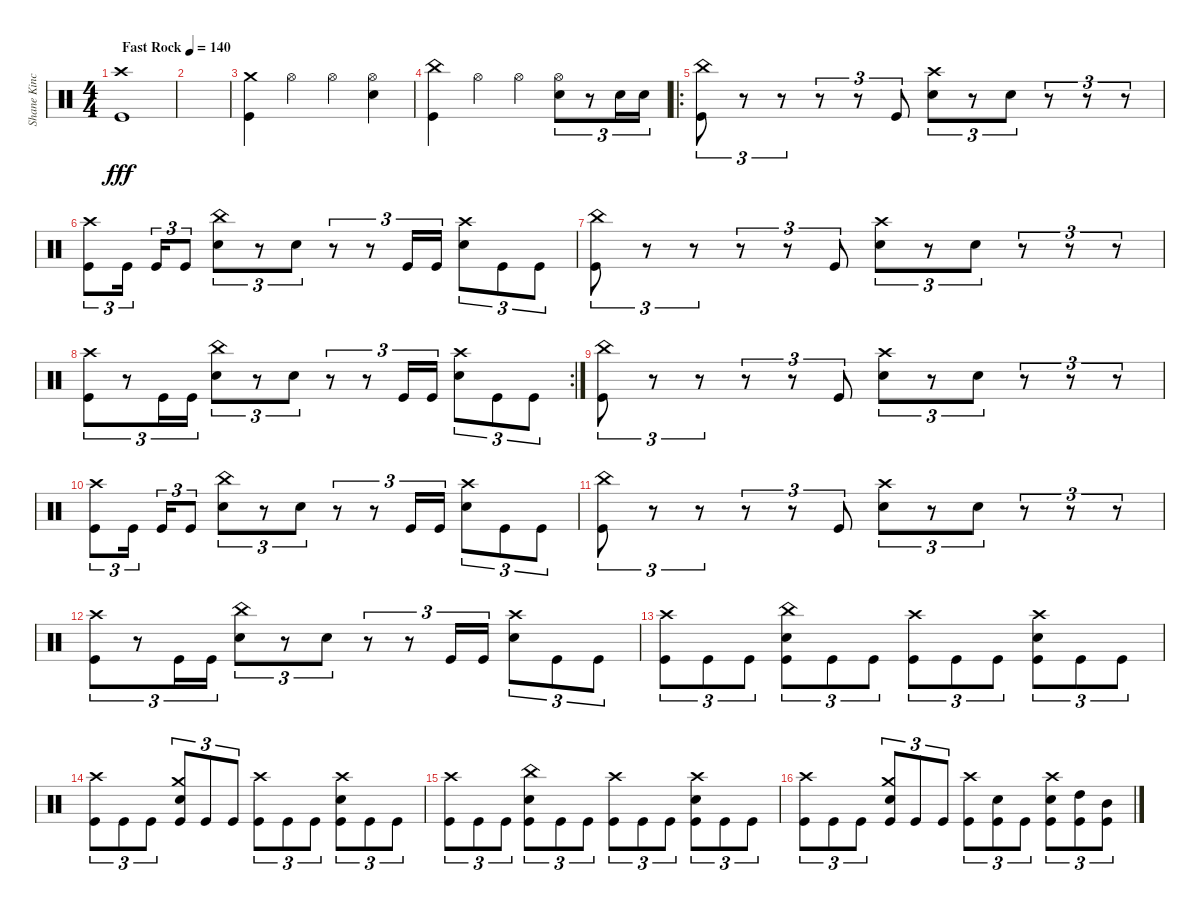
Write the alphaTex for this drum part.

\track ("Shane Kincaid" "Shane Kinc") {instrument percussion}
\staff {score}
\articulation defaults
\ts (4 4)
\tempo (140 "Fast Rock")
\clef neutral
\ks c
("Crash high (hit)" "Kick (hit)").1{dy fff} |
|
("Crash medium (hit)" "Kick (hit)").4 "Hi-Hat (open)".4 "Hi-Hat (open)".4 ("Hi-Hat (open)" "Electric Snare (hit)").4 |
("China (hit)" "Kick (hit)").4 "Hi-Hat (open)".4 "Hi-Hat (open)".4 ("Hi-Hat (open)" "Electric Snare (hit)").8{tu (3 2)} r.8{tu (3 2)} "Electric Snare (hit)".16{tu (3 2)} "Electric Snare (hit)".16{tu (3 2)} |
\ro
("China (hit)" "Kick (hit)").8{tu (3 2)} r.8{tu (3 2)} r.8{tu (3 2)} r.8{tu (3 2)} r.8{tu (3 2)} "Kick (hit)".8{tu (3 2)} ("Crash high (hit)" "Electric Snare (hit)").8{tu (3 2)} r.8{tu (3 2)} "Electric Snare (hit)".8{tu (3 2)} r.8{tu (3 2)} r.8{tu (3 2)} r.8{tu (3 2)} |
("Crash high (hit)" "Kick (hit)").8{tu (3 2)} "Kick (hit)".16{tu (3 2) beam splitsecondary} "Kick (hit)".16{tu (3 2)} "Kick (hit)".8{tu (3 2)} ("China (hit)" "Electric Snare (hit)").8{tu (3 2)} r.8{tu (3 2)} "Electric Snare (hit)".8{tu (3 2)} r.8{tu (3 2)} r.8{tu (3 2)} "Kick (hit)".16{tu (3 2)} "Kick (hit)".16{tu (3 2)} ("Crash high (hit)" "Electric Snare (hit)").8{tu (3 2)} "Kick (hit)".8{tu (3 2)} "Kick (hit)".8{tu (3 2)} |
("China (hit)" "Kick (hit)").8{tu (3 2)} r.8{tu (3 2)} r.8{tu (3 2)} r.8{tu (3 2)} r.8{tu (3 2)} "Kick (hit)".8{tu (3 2)} ("Crash high (hit)" "Electric Snare (hit)").8{tu (3 2)} r.8{tu (3 2)} "Electric Snare (hit)".8{tu (3 2)} r.8{tu (3 2)} r.8{tu (3 2)} r.8{tu (3 2)} |
\rc 2
("Crash high (hit)" "Kick (hit)").8{tu (3 2)} r.8{tu (3 2)} "Kick (hit)".16{tu (3 2)} "Kick (hit)".16{tu (3 2)} ("China (hit)" "Electric Snare (hit)").8{tu (3 2)} r.8{tu (3 2)} "Electric Snare (hit)".8{tu (3 2)} r.8{tu (3 2)} r.8{tu (3 2)} "Kick (hit)".16{tu (3 2)} "Kick (hit)".16{tu (3 2)} ("Crash high (hit)" "Electric Snare (hit)").8{tu (3 2)} "Kick (hit)".8{tu (3 2)} "Kick (hit)".8{tu (3 2)} |
("China (hit)" "Kick (hit)").8{tu (3 2)} r.8{tu (3 2)} r.8{tu (3 2)} r.8{tu (3 2)} r.8{tu (3 2)} "Kick (hit)".8{tu (3 2)} ("Crash high (hit)" "Electric Snare (hit)").8{tu (3 2)} r.8{tu (3 2)} "Electric Snare (hit)".8{tu (3 2)} r.8{tu (3 2)} r.8{tu (3 2)} r.8{tu (3 2)} |
("Crash high (hit)" "Kick (hit)").8{tu (3 2)} "Kick (hit)".16{tu (3 2) beam splitsecondary} "Kick (hit)".16{tu (3 2)} "Kick (hit)".8{tu (3 2)} ("China (hit)" "Electric Snare (hit)").8{tu (3 2)} r.8{tu (3 2)} "Electric Snare (hit)".8{tu (3 2)} r.8{tu (3 2)} r.8{tu (3 2)} "Kick (hit)".16{tu (3 2)} "Kick (hit)".16{tu (3 2)} ("Crash high (hit)" "Electric Snare (hit)").8{tu (3 2)} "Kick (hit)".8{tu (3 2)} "Kick (hit)".8{tu (3 2)} |
("China (hit)" "Kick (hit)").8{tu (3 2)} r.8{tu (3 2)} r.8{tu (3 2)} r.8{tu (3 2)} r.8{tu (3 2)} "Kick (hit)".8{tu (3 2)} ("Crash high (hit)" "Electric Snare (hit)").8{tu (3 2)} r.8{tu (3 2)} "Electric Snare (hit)".8{tu (3 2)} r.8{tu (3 2)} r.8{tu (3 2)} r.8{tu (3 2)} |
("Crash high (hit)" "Kick (hit)").8{tu (3 2)} r.8{tu (3 2)} "Kick (hit)".16{tu (3 2)} "Kick (hit)".16{tu (3 2)} ("China (hit)" "Electric Snare (hit)").8{tu (3 2)} r.8{tu (3 2)} "Electric Snare (hit)".8{tu (3 2)} r.8{tu (3 2)} r.8{tu (3 2)} "Kick (hit)".16{tu (3 2)} "Kick (hit)".16{tu (3 2)} ("Crash high (hit)" "Electric Snare (hit)").8{tu (3 2)} "Kick (hit)".8{tu (3 2)} "Kick (hit)".8{tu (3 2)} |
("Crash high (hit)" "Kick (hit)").8{tu (3 2)} "Kick (hit)".8{tu (3 2)} "Kick (hit)".8{tu (3 2)} ("China (hit)" "Electric Snare (hit)" "Kick (hit)").8{tu (3 2)} "Kick (hit)".8{tu (3 2)} "Kick (hit)".8{tu (3 2)} ("Crash high (hit)" "Kick (hit)").8{tu (3 2)} "Kick (hit)".8{tu (3 2)} "Kick (hit)".8{tu (3 2)} ("Crash high (hit)" "Electric Snare (hit)" "Kick (hit)").8{tu (3 2)} "Kick (hit)".8{tu (3 2)} "Kick (hit)".8{tu (3 2)} |
("Crash high (hit)" "Kick (hit)").8{tu (3 2)} "Kick (hit)".8{tu (3 2)} "Kick (hit)".8{tu (3 2)} ("Crash medium (hit)" "Electric Snare (hit)" "Kick (hit)").8{tu (3 2)} "Kick (hit)".8{tu (3 2)} "Kick (hit)".8{tu (3 2)} ("Crash high (hit)" "Kick (hit)").8{tu (3 2)} "Kick (hit)".8{tu (3 2)} "Kick (hit)".8{tu (3 2)} ("Crash high (hit)" "Electric Snare (hit)" "Kick (hit)").8{tu (3 2)} "Kick (hit)".8{tu (3 2)} "Kick (hit)".8{tu (3 2)} |
("Crash high (hit)" "Kick (hit)").8{tu (3 2)} "Kick (hit)".8{tu (3 2)} "Kick (hit)".8{tu (3 2)} ("China (hit)" "Electric Snare (hit)" "Kick (hit)").8{tu (3 2)} "Kick (hit)".8{tu (3 2)} "Kick (hit)".8{tu (3 2)} ("Crash high (hit)" "Kick (hit)").8{tu (3 2)} "Kick (hit)".8{tu (3 2)} "Kick (hit)".8{tu (3 2)} ("Crash high (hit)" "Electric Snare (hit)" "Kick (hit)").8{tu (3 2)} "Kick (hit)".8{tu (3 2)} "Kick (hit)".8{tu (3 2)} |
("Crash high (hit)" "Kick (hit)").8{tu (3 2)} "Kick (hit)".8{tu (3 2)} "Kick (hit)".8{tu (3 2)} ("Crash medium (hit)" "Kick (hit)" "Electric Snare (hit)").8{tu (3 2)} "Kick (hit)".8{tu (3 2)} "Kick (hit)".8{tu (3 2)} ("Crash high (hit)" "Kick (hit)").8{tu (3 2)} ("Kick (hit)" "Electric Snare (hit)").8{tu (3 2)} "Kick (hit)".8{tu (3 2)} ("Crash high (hit)" "Kick (hit)" "Electric Snare (hit)").8{tu (3 2)} ("High Tom (hit)" "Kick (hit)").8{tu (3 2)} ("Mid Tom (hit)" "Kick (hit)").8{tu (3 2)}
